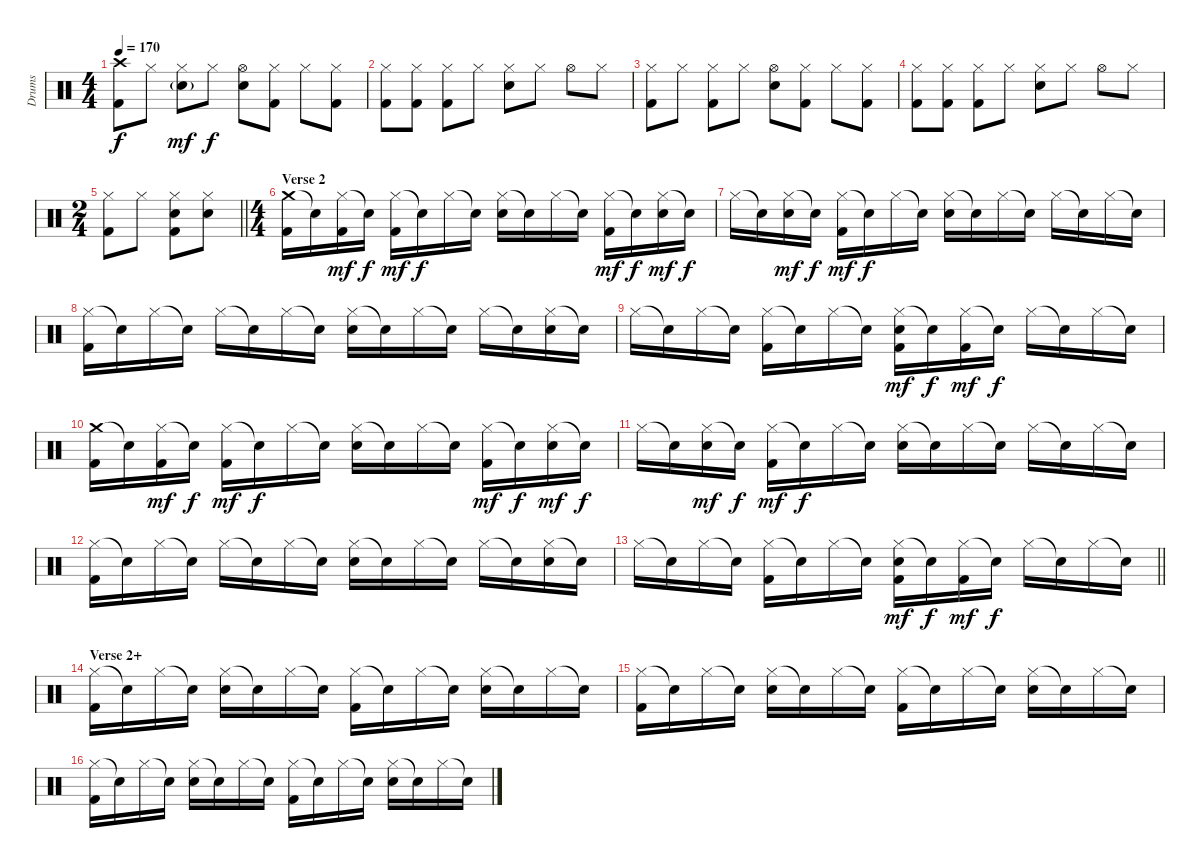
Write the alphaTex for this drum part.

\track ("Drums" "Drums") {instrument percussion}
\staff {score}
\articulation defaults
\ts (4 4)
\tempo 170
\clef neutral
\ks c
("Crash high (hit)" "Kick (hit) 2").8{dy f} "Hi-Hat (closed)".8 ("Hi-Hat (closed)" "Snare (hit) 2"{g}).8{dy mf} "Hi-Hat (closed)".8{dy f} ("Hi-Hat (open)" "Snare (hit) 2").8 ("Hi-Hat (closed)" "Kick (hit) 2").8 "Hi-Hat (closed)".8 ("Hi-Hat (closed)" "Kick (hit) 2").8 |
("Hi-Hat (closed)" "Kick (hit) 2").8 ("Hi-Hat (closed)" "Kick (hit) 2").8 ("Hi-Hat (closed)" "Kick (hit) 2").8 "Hi-Hat (closed)".8 ("Hi-Hat (closed)" "Snare (hit) 2").8 "Hi-Hat (closed)".8 "Hi-Hat (open)".8 "Hi-Hat (closed)".8 |
("Hi-Hat (closed)" "Kick (hit) 2").8 "Hi-Hat (closed)".8 ("Hi-Hat (closed)" "Kick (hit) 2").8 "Hi-Hat (closed)".8 ("Hi-Hat (open)" "Snare (hit) 2").8 ("Hi-Hat (closed)" "Kick (hit) 2").8 "Hi-Hat (closed)".8 ("Hi-Hat (closed)" "Kick (hit) 2").8 |
("Hi-Hat (closed)" "Kick (hit) 2").8 ("Hi-Hat (closed)" "Kick (hit) 2").8 ("Hi-Hat (closed)" "Kick (hit) 2").8 "Hi-Hat (closed)".8 ("Hi-Hat (closed)" "Snare (hit) 2").8 "Hi-Hat (closed)".8 "Hi-Hat (open)".8 "Hi-Hat (closed)".8 |
\ts (2 4)
\barLineRight lightlight
("Hi-Hat (closed)" "Kick (hit) 2").8 "Hi-Hat (closed)".8 ("Hi-Hat (closed)" "Snare (hit) 2" "Kick (hit) 2").8 ("Hi-Hat (closed)" "Snare (hit) 2").8 |
\ts (4 4)
\section ("" "Verse 2")
("Crash medium (hit)" "Kick (hit) 2").16 "Snare (hit)"{t}.16 ("Hi-Hat (closed)" "Kick (hit) 2").16{dy mf} "Snare (hit)"{t}.16{dy f} ("Hi-Hat (closed)" "Kick (hit) 2").16{dy mf} "Snare (hit)"{t}.16{dy f} "Hi-Hat (closed)".16 "Snare (hit)"{t}.16 ("Hi-Hat (closed)" "Snare (hit) 2").16 "Snare (hit)"{t}.16 "Hi-Hat (closed)".16 "Snare (hit)"{t}.16 ("Hi-Hat (closed)" "Kick (hit) 2").16{dy mf} "Snare (hit)"{t}.16{dy f} ("Hi-Hat (closed)" "Snare (hit) 2").16{dy mf} "Snare (hit)"{t}.16{dy f} |
"Hi-Hat (closed)".16 "Snare (hit)"{t}.16 ("Hi-Hat (closed)" "Snare (hit) 2").16{dy mf} "Snare (hit)"{t}.16{dy f} ("Hi-Hat (closed)" "Kick (hit) 2").16{dy mf} "Snare (hit)"{t}.16{dy f} "Hi-Hat (closed)".16 "Snare (hit)"{t}.16 ("Hi-Hat (closed)" "Snare (hit) 2").16 "Snare (hit)"{t}.16 "Hi-Hat (closed)".16 "Snare (hit)"{t}.16 "Hi-Hat (closed)".16 "Snare (hit)"{t}.16 "Hi-Hat (closed)".16 "Snare (hit)"{t}.16 |
("Hi-Hat (closed)" "Kick (hit) 2").16 "Snare (hit)"{t}.16 "Hi-Hat (closed)".16 "Snare (hit)"{t}.16 "Hi-Hat (closed)".16 "Snare (hit)"{t}.16 "Hi-Hat (closed)".16 "Snare (hit)"{t}.16 ("Hi-Hat (closed)" "Snare (hit) 2").16 "Snare (hit)"{t}.16 "Hi-Hat (closed)".16 "Snare (hit)"{t}.16 "Hi-Hat (closed)".16 "Snare (hit)"{t}.16 ("Hi-Hat (closed)" "Snare (hit) 2").16 "Snare (hit)"{t}.16 |
"Hi-Hat (closed)".16 "Snare (hit)"{t}.16 "Hi-Hat (closed)".16 "Snare (hit)"{t}.16 ("Hi-Hat (closed)" "Kick (hit) 2").16 "Snare (hit)"{t}.16 "Hi-Hat (closed)".16 "Snare (hit)"{t}.16 ("Hi-Hat (closed)" "Snare (hit) 2" "Kick (hit) 2").16{dy mf} "Snare (hit)"{t}.16{dy f} ("Hi-Hat (closed)" "Kick (hit) 2").16{dy mf} "Snare (hit)"{t}.16{dy f} "Hi-Hat (closed)".16 "Snare (hit)"{t}.16 "Hi-Hat (closed)".16 "Snare (hit)"{t}.16 |
("Crash medium (hit)" "Kick (hit) 2").16 "Snare (hit)"{t}.16 ("Hi-Hat (closed)" "Kick (hit) 2").16{dy mf} "Snare (hit)"{t}.16{dy f} ("Hi-Hat (closed)" "Kick (hit) 2").16{dy mf} "Snare (hit)"{t}.16{dy f} "Hi-Hat (closed)".16 "Snare (hit)"{t}.16 ("Hi-Hat (closed)" "Snare (hit) 2").16 "Snare (hit)"{t}.16 "Hi-Hat (closed)".16 "Snare (hit)"{t}.16 ("Hi-Hat (closed)" "Kick (hit) 2").16{dy mf} "Snare (hit)"{t}.16{dy f} ("Hi-Hat (closed)" "Snare (hit) 2").16{dy mf} "Snare (hit)"{t}.16{dy f} |
"Hi-Hat (closed)".16 "Snare (hit)"{t}.16 ("Hi-Hat (closed)" "Snare (hit) 2").16{dy mf} "Snare (hit)"{t}.16{dy f} ("Hi-Hat (closed)" "Kick (hit) 2").16{dy mf} "Snare (hit)"{t}.16{dy f} "Hi-Hat (closed)".16 "Snare (hit)"{t}.16 ("Hi-Hat (closed)" "Snare (hit) 2").16 "Snare (hit)"{t}.16 "Hi-Hat (closed)".16 "Snare (hit)"{t}.16 "Hi-Hat (closed)".16 "Snare (hit)"{t}.16 "Hi-Hat (closed)".16 "Snare (hit)"{t}.16 |
("Hi-Hat (closed)" "Kick (hit) 2").16 "Snare (hit)"{t}.16 "Hi-Hat (closed)".16 "Snare (hit)"{t}.16 "Hi-Hat (closed)".16 "Snare (hit)"{t}.16 "Hi-Hat (closed)".16 "Snare (hit)"{t}.16 ("Hi-Hat (closed)" "Snare (hit) 2").16 "Snare (hit)"{t}.16 "Hi-Hat (closed)".16 "Snare (hit)"{t}.16 "Hi-Hat (closed)".16 "Snare (hit)"{t}.16 ("Hi-Hat (closed)" "Snare (hit) 2").16 "Snare (hit)"{t}.16 |
\barLineRight lightlight "Hi-Hat (closed)".16 "Snare (hit)"{t}.16 "Hi-Hat (closed)".16 "Snare (hit)"{t}.16
("Hi-Hat (closed)" "Kick (hit) 2").16 "Snare (hit)"{t}.16 "Hi-Hat (closed)".16 "Snare (hit)"{t}.16 ("Hi-Hat (closed)" "Snare (hit) 2" "Kick (hit) 2").16{dy mf} "Snare (hit)"{t}.16{dy f} ("Hi-Hat (closed)" "Kick (hit) 2").16{dy mf} "Snare (hit)"{t}.16{dy f} "Hi-Hat (closed)".16 "Snare (hit)"{t}.16 "Hi-Hat (closed)".16 "Snare (hit)"{t}.16 |
\section ("" "Verse 2+")
("Hi-Hat (closed)" "Kick (hit) 2").16 "Snare (hit)"{t}.16 "Hi-Hat (closed)".16 "Snare (hit)"{t}.16 ("Hi-Hat (closed)" "Snare (hit) 2").16 "Snare (hit)"{t}.16 "Hi-Hat (closed)".16 "Snare (hit)"{t}.16 ("Hi-Hat (closed)" "Kick (hit) 2").16 "Snare (hit)"{t}.16 "Hi-Hat (closed)".16 "Snare (hit)"{t}.16 ("Hi-Hat (closed)" "Snare (hit) 2").16 "Snare (hit)"{t}.16 "Hi-Hat (closed)".16 "Snare (hit)"{t}.16 |
("Hi-Hat (closed)" "Kick (hit) 2").16 "Snare (hit)"{t}.16 "Hi-Hat (closed)".16 "Snare (hit)"{t}.16 ("Hi-Hat (closed)" "Snare (hit) 2").16 "Snare (hit)"{t}.16 "Hi-Hat (closed)".16 "Snare (hit)"{t}.16 ("Hi-Hat (closed)" "Kick (hit) 2").16 "Snare (hit)"{t}.16 "Hi-Hat (closed)".16 "Snare (hit)"{t}.16 ("Hi-Hat (closed)" "Snare (hit) 2").16 "Snare (hit)"{t}.16 "Hi-Hat (closed)".16 "Snare (hit)"{t}.16 |
("Hi-Hat (closed)" "Kick (hit) 2").16 "Snare (hit)"{t}.16 "Hi-Hat (closed)".16 "Snare (hit)"{t}.16 ("Hi-Hat (closed)" "Snare (hit) 2").16 "Snare (hit)"{t}.16 "Hi-Hat (closed)".16 "Snare (hit)"{t}.16 ("Hi-Hat (closed)" "Kick (hit) 2").16 "Snare (hit)"{t}.16 "Hi-Hat (closed)".16 "Snare (hit)"{t}.16 ("Hi-Hat (closed)" "Snare (hit) 2").16 "Snare (hit)"{t}.16 "Hi-Hat (closed)".16 "Snare (hit)"{t}.16
